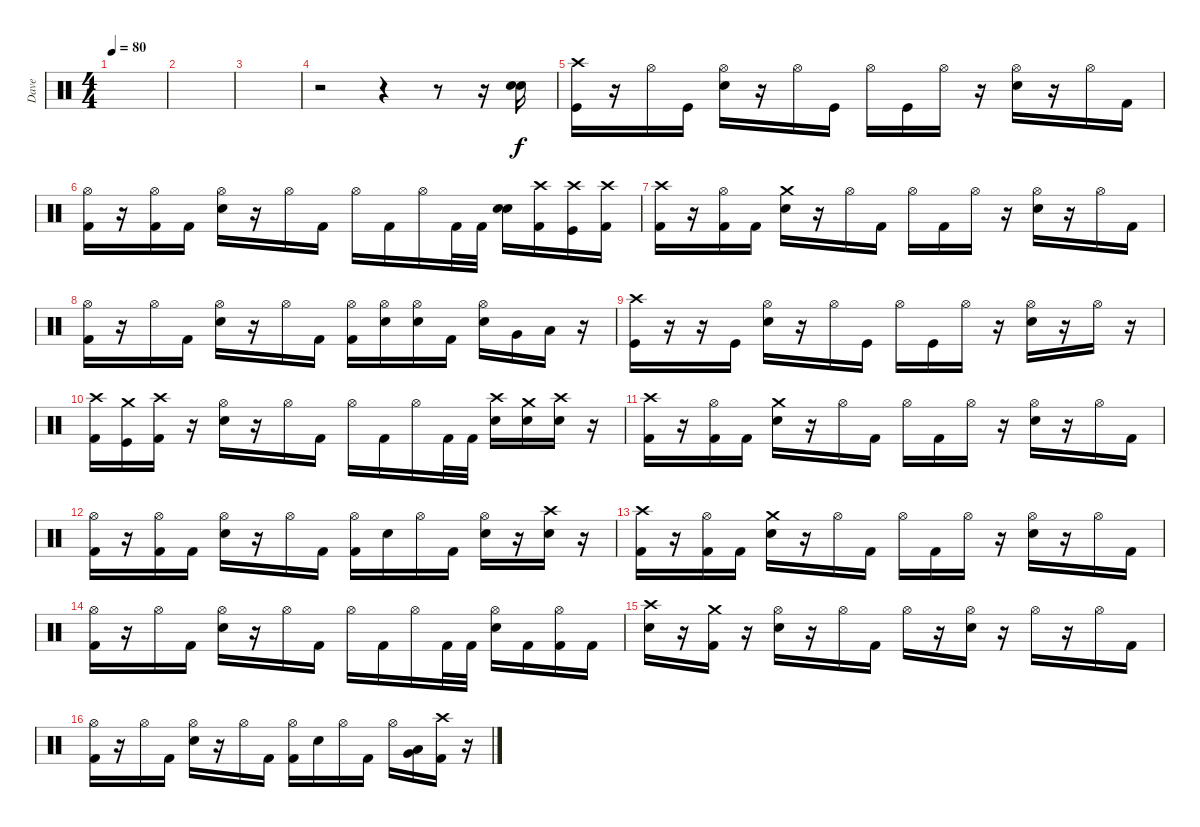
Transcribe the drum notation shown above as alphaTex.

\track ("Dave" "Dave") {instrument percussion}
\staff {score}
\articulation defaults
\ts (4 4)
\tempo 80
\clef neutral
\ks c
|
|
|
r.2 r.4 r.8 r.16 ("Electric Snare (hit)" "Electric Snare (hit)").16 |
("Crash high (hit)" "Kick (hit)").16 r.16 "Hi-Hat (open)".16 "Kick (hit)".16 ("Hi-Hat (open)" "Electric Snare (hit)").16 r.16 "Hi-Hat (open)".16 "Kick (hit)".16 "Hi-Hat (open)".16 "Kick (hit)".16 "Hi-Hat (open)".16 r.16 ("Hi-Hat (open)" "Electric Snare (hit)").16 r.16 "Hi-Hat (open)".16 "Kick (hit) 2".16 |
("Hi-Hat (open)" "Kick (hit) 2").16 r.16 ("Hi-Hat (open)" "Kick (hit) 2").16 "Kick (hit) 2".16 ("Hi-Hat (open)" "Electric Snare (hit)").16 r.16 "Hi-Hat (open)".16 "Kick (hit) 2".16 "Hi-Hat (open)".16 "Kick (hit) 2".16 "Hi-Hat (open)".16 "Kick (hit) 2".32 "Kick (hit) 2".32 ("Electric Snare (hit)" "Electric Snare (hit)").16 ("Crash high (hit)" "Kick (hit) 2").16 ("Crash high (hit)" "Kick (hit)").16 ("Crash high (hit)" "Kick (hit) 2").16 |
("Crash high (hit)" "Kick (hit) 2").16 r.16 ("Hi-Hat (open)" "Kick (hit) 2").16 "Kick (hit) 2".16 ("Crash medium (hit)" "Electric Snare (hit)").16 r.16 "Hi-Hat (open)".16 "Kick (hit) 2".16 "Hi-Hat (open)".16 "Kick (hit) 2".16 "Hi-Hat (open)".16 r.16 ("Hi-Hat (open)" "Electric Snare (hit)").16 r.16 "Hi-Hat (open)".16 "Kick (hit) 2".16 |
("Hi-Hat (open)" "Kick (hit) 2").16 r.16 "Hi-Hat (open)".16 "Kick (hit) 2".16 ("Hi-Hat (open)" "Electric Snare (hit)").16 r.16 "Hi-Hat (open)".16 "Kick (hit) 2".16 ("Hi-Hat (open)" "Kick (hit) 2").16 ("Hi-Hat (open)" "Electric Snare (hit)").16 ("Hi-Hat (open)" "Electric Snare (hit)").16 "Kick (hit) 2".16 ("Hi-Hat (open)" "Electric Snare (hit)").16 "Very Low Tom (hit)".16 "Low Floor Tom (hit)".16 r.16 |
("Crash high (hit)" "Kick (hit)").16 r.16 r.16 "Kick (hit)".16 ("Hi-Hat (open)" "Electric Snare (hit)").16 r.16 "Hi-Hat (open)".16 "Kick (hit)".16 "Hi-Hat (open)".16 "Kick (hit)".16 "Hi-Hat (open)".16 r.16 ("Hi-Hat (open)" "Electric Snare (hit)").16 r.16 "Hi-Hat (open)".16 r.16 |
("Crash high (hit)" "Kick (hit) 2").16 ("Crash medium (hit)" "Kick (hit)").16 ("Crash high (hit)" "Kick (hit) 2").16 r.16 ("Hi-Hat (open)" "Electric Snare (hit)").16 r.16 "Hi-Hat (open)".16 "Kick (hit) 2".16 "Hi-Hat (open)".16 "Kick (hit) 2".16 "Hi-Hat (open)".16 "Kick (hit) 2".32 "Kick (hit) 2".32 ("Crash high (hit)" "Electric Snare (hit)").16 ("Crash medium (hit)" "Electric Snare (hit)").16 ("Crash high (hit)" "Electric Snare (hit)").16 r.16 |
("Crash high (hit)" "Kick (hit) 2").16 r.16 ("Hi-Hat (open)" "Kick (hit) 2").16 "Kick (hit) 2".16 ("Crash medium (hit)" "Electric Snare (hit)").16 r.16 "Hi-Hat (open)".16 "Kick (hit) 2".16 "Hi-Hat (open)".16 "Kick (hit) 2".16 "Hi-Hat (open)".16 r.16 ("Hi-Hat (open)" "Electric Snare (hit)").16 r.16 "Hi-Hat (open)".16 "Kick (hit) 2".16 |
("Hi-Hat (open)" "Kick (hit) 2").16 r.16 ("Hi-Hat (open)" "Kick (hit) 2").16 "Kick (hit) 2".16 ("Hi-Hat (open)" "Electric Snare (hit)").16 r.16 "Hi-Hat (open)".16 "Kick (hit) 2".16 ("Hi-Hat (open)" "Kick (hit) 2").16 "Electric Snare (hit)".16 "Hi-Hat (open)".16 "Kick (hit) 2".16 ("Hi-Hat (open)" "Electric Snare (hit)").16 r.16 ("Crash high (hit)" "Electric Snare (hit)").16 r.16 |
("Crash high (hit)" "Kick (hit) 2").16 r.16 ("Hi-Hat (open)" "Kick (hit) 2").16 "Kick (hit) 2".16 ("Crash medium (hit)" "Electric Snare (hit)").16 r.16 "Hi-Hat (open)".16 "Kick (hit) 2".16 "Hi-Hat (open)".16 "Kick (hit) 2".16 "Hi-Hat (open)".16 r.16 ("Hi-Hat (open)" "Electric Snare (hit)").16 r.16 "Hi-Hat (open)".16 "Kick (hit) 2".16 |
("Hi-Hat (open)" "Kick (hit) 2").16 r.16 "Hi-Hat (open)".16 "Kick (hit) 2".16 ("Hi-Hat (open)" "Electric Snare (hit)").16 r.16 "Hi-Hat (open)".16 "Kick (hit) 2".16 "Hi-Hat (open)".16 "Kick (hit) 2".16 "Hi-Hat (open)".16 "Kick (hit) 2".32 "Kick (hit) 2".32 ("Hi-Hat (open)" "Electric Snare (hit)").16 "Kick (hit) 2".16 ("Hi-Hat (open)" "Kick (hit) 2").16 "Kick (hit) 2".16 |
("Crash high (hit)" "Electric Snare (hit)").16 r.16 ("Crash medium (hit)" "Kick (hit) 2").16 r.16 ("Hi-Hat (open)" "Electric Snare (hit)").16 r.16 "Hi-Hat (open)".16 "Kick (hit) 2".16 "Hi-Hat (open)".16 r.16 ("Hi-Hat (open)" "Electric Snare (hit)").16 r.16 "Hi-Hat (open)".16 r.16 "Hi-Hat (open)".16 "Kick (hit) 2".16 |
("Hi-Hat (open)" "Kick (hit) 2").16 r.16 "Hi-Hat (open)".16 "Kick (hit) 2".16 ("Hi-Hat (open)" "Electric Snare (hit)").16 r.16 "Hi-Hat (open)".16 "Kick (hit) 2".16 ("Hi-Hat (open)" "Kick (hit) 2").16 "Electric Snare (hit)".16 "Hi-Hat (open)".16 "Kick (hit) 2".16 "Hi-Hat (open)".16 ("Very Low Tom (hit)" "Low Floor Tom (hit)").16 ("Crash high (hit)" "Kick (hit) 2").16 r.16
